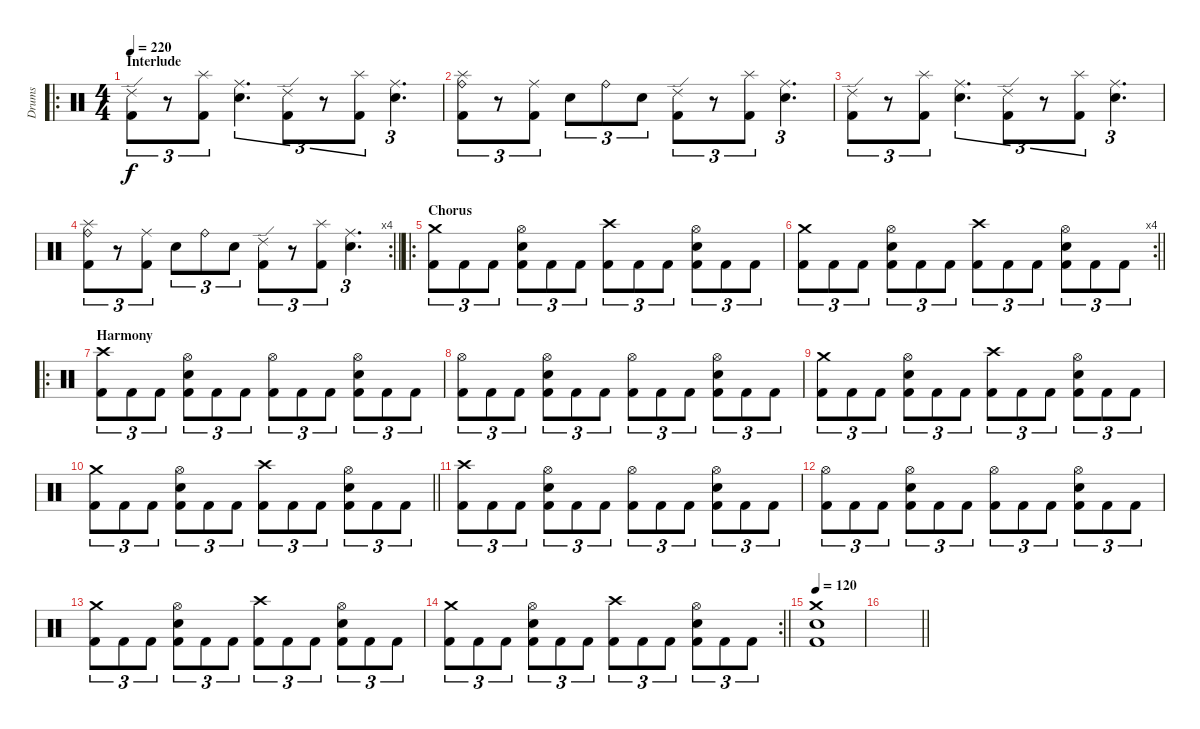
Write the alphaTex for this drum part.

\track ("Drums" "Drums") {instrument percussion}
\staff {score}
\articulation defaults
\ro
\ts (4 4)
\section ("" "Interlude")
\tempo 220
\clef neutral
\ks c
("Ride (edge) 2" "Kick (hit) 2").8{tu (3 2) dy f} r.8{tu (3 2)} ("Splash (hit)" "Kick (hit) 2").8{tu (3 2)} ("Ride (middle)" "Snare (hit) 2").4{d tu (3 2)} ("Ride (edge) 2" "Kick (hit) 2").8{tu (3 2)} r.8{tu (3 2)} ("Splash (hit)" "Kick (hit) 2").8{tu (3 2)} ("Ride (middle)" "Snare (hit) 2").4{d tu (3 2)} |
("Splash (hit)" "Ride (bell)" "Kick (hit) 2").8{tu (3 2)} r.8{tu (3 2)} ("Ride (middle)" "Kick (hit) 2").8{tu (3 2)} "Snare (hit) 2".8{tu (3 2)} "Ride (bell)".8{tu (3 2)} "Snare (hit) 2".8{tu (3 2)} ("Ride (edge) 2" "Kick (hit) 2").8{tu (3 2)} r.8{tu (3 2)} ("Splash (hit)" "Kick (hit) 2").8{tu (3 2)} ("Ride (middle)" "Snare (hit) 2").4{d tu (3 2)} |
("Ride (edge) 2" "Kick (hit) 2").8{tu (3 2)} r.8{tu (3 2)} ("Splash (hit)" "Kick (hit) 2").8{tu (3 2)} ("Ride (middle)" "Snare (hit) 2").4{d tu (3 2)} ("Ride (edge) 2" "Kick (hit) 2").8{tu (3 2)} r.8{tu (3 2)} ("Splash (hit)" "Kick (hit) 2").8{tu (3 2)} ("Ride (middle)" "Snare (hit) 2").4{d tu (3 2)} |
\rc 4
\barLineRight lightlight
("Splash (hit)" "Ride (bell)" "Kick (hit) 2").8{tu (3 2)} r.8{tu (3 2)} ("Ride (middle)" "Kick (hit) 2").8{tu (3 2)} "Snare (hit) 2".8{tu (3 2)} "Ride (bell)".8{tu (3 2)} "Snare (hit) 2".8{tu (3 2)} ("Ride (edge) 2" "Kick (hit) 2").8{tu (3 2)} r.8{tu (3 2)} ("Splash (hit)" "Kick (hit) 2").8{tu (3 2)} ("Ride (middle)" "Snare (hit) 2").4{d tu (3 2)} |
\ro
\section ("" "Chorus")
("Crash medium (hit)" "Kick (hit) 2").8{tu (3 2)} "Kick (hit) 2".8{tu (3 2)} "Kick (hit) 2".8{tu (3 2)} ("Hi-Hat (open)" "Snare (hit) 2" "Kick (hit) 2").8{tu (3 2)} "Kick (hit) 2".8{tu (3 2)} "Kick (hit) 2".8{tu (3 2)} ("Crash high (hit)" "Kick (hit) 2").8{tu (3 2)} "Kick (hit) 2".8{tu (3 2)} "Kick (hit) 2".8{tu (3 2)} ("Hi-Hat (open)" "Snare (hit) 2" "Kick (hit) 2").8{tu (3 2)} "Kick (hit) 2".8{tu (3 2)} "Kick (hit) 2".8{tu (3 2)} |
\rc 4
\barLineRight lightlight
("Crash medium (hit)" "Kick (hit) 2").8{tu (3 2)} "Kick (hit) 2".8{tu (3 2)} "Kick (hit) 2".8{tu (3 2)} ("Hi-Hat (open)" "Snare (hit) 2" "Kick (hit) 2").8{tu (3 2)} "Kick (hit) 2".8{tu (3 2)} "Kick (hit) 2".8{tu (3 2)} ("Crash high (hit)" "Kick (hit) 2").8{tu (3 2)} "Kick (hit) 2".8{tu (3 2)} "Kick (hit) 2".8{tu (3 2)} ("Hi-Hat (open)" "Snare (hit) 2" "Kick (hit) 2").8{tu (3 2)} "Kick (hit) 2".8{tu (3 2)} "Kick (hit) 2".8{tu (3 2)} |
\ro
\section ("" "Harmony")
("Crash high (hit)" "Kick (hit) 2").8{tu (3 2)} "Kick (hit) 2".8{tu (3 2)} "Kick (hit) 2".8{tu (3 2)} ("Hi-Hat (open)" "Snare (hit) 2" "Kick (hit) 2").8{tu (3 2)} "Kick (hit) 2".8{tu (3 2)} "Kick (hit) 2".8{tu (3 2)} ("Hi-Hat (open)" "Kick (hit) 2").8{tu (3 2)} "Kick (hit) 2".8{tu (3 2)} "Kick (hit) 2".8{tu (3 2)} ("Hi-Hat (open)" "Snare (hit) 2" "Kick (hit) 2").8{tu (3 2)} "Kick (hit) 2".8{tu (3 2)} "Kick (hit) 2".8{tu (3 2)} |
("Hi-Hat (open)" "Kick (hit) 2").8{tu (3 2)} "Kick (hit) 2".8{tu (3 2)} "Kick (hit) 2".8{tu (3 2)} ("Hi-Hat (open)" "Snare (hit) 2" "Kick (hit) 2").8{tu (3 2)} "Kick (hit) 2".8{tu (3 2)} "Kick (hit) 2".8{tu (3 2)} ("Hi-Hat (open)" "Kick (hit) 2").8{tu (3 2)} "Kick (hit) 2".8{tu (3 2)} "Kick (hit) 2".8{tu (3 2)} ("Hi-Hat (open)" "Snare (hit) 2" "Kick (hit) 2").8{tu (3 2)} "Kick (hit) 2".8{tu (3 2)} "Kick (hit) 2".8{tu (3 2)} |
("Crash medium (hit)" "Kick (hit) 2").8{tu (3 2)} "Kick (hit) 2".8{tu (3 2)} "Kick (hit) 2".8{tu (3 2)} ("Hi-Hat (open)" "Snare (hit) 2" "Kick (hit) 2").8{tu (3 2)} "Kick (hit) 2".8{tu (3 2)} "Kick (hit) 2".8{tu (3 2)} ("Crash high (hit)" "Kick (hit) 2").8{tu (3 2)} "Kick (hit) 2".8{tu (3 2)} "Kick (hit) 2".8{tu (3 2)} ("Hi-Hat (open)" "Snare (hit) 2" "Kick (hit) 2").8{tu (3 2)} "Kick (hit) 2".8{tu (3 2)} "Kick (hit) 2".8{tu (3 2)} |
\barLineRight lightlight
("Crash medium (hit)" "Kick (hit) 2").8{tu (3 2)} "Kick (hit) 2".8{tu (3 2)} "Kick (hit) 2".8{tu (3 2)} ("Hi-Hat (open)" "Snare (hit) 2" "Kick (hit) 2").8{tu (3 2)} "Kick (hit) 2".8{tu (3 2)} "Kick (hit) 2".8{tu (3 2)} ("Crash high (hit)" "Kick (hit) 2").8{tu (3 2)} "Kick (hit) 2".8{tu (3 2)} "Kick (hit) 2".8{tu (3 2)} ("Hi-Hat (open)" "Snare (hit) 2" "Kick (hit) 2").8{tu (3 2)} "Kick (hit) 2".8{tu (3 2)} "Kick (hit) 2".8{tu (3 2)} |
("Crash high (hit)" "Kick (hit) 2").8{tu (3 2)} "Kick (hit) 2".8{tu (3 2)} "Kick (hit) 2".8{tu (3 2)} ("Hi-Hat (open)" "Snare (hit) 2" "Kick (hit) 2").8{tu (3 2)} "Kick (hit) 2".8{tu (3 2)} "Kick (hit) 2".8{tu (3 2)} ("Hi-Hat (open)" "Kick (hit) 2").8{tu (3 2)} "Kick (hit) 2".8{tu (3 2)} "Kick (hit) 2".8{tu (3 2)} ("Hi-Hat (open)" "Snare (hit) 2" "Kick (hit) 2").8{tu (3 2)} "Kick (hit) 2".8{tu (3 2)} "Kick (hit) 2".8{tu (3 2)} |
("Hi-Hat (open)" "Kick (hit) 2").8{tu (3 2)} "Kick (hit) 2".8{tu (3 2)} "Kick (hit) 2".8{tu (3 2)} ("Hi-Hat (open)" "Snare (hit) 2" "Kick (hit) 2").8{tu (3 2)} "Kick (hit) 2".8{tu (3 2)} "Kick (hit) 2".8{tu (3 2)} ("Hi-Hat (open)" "Kick (hit) 2").8{tu (3 2)} "Kick (hit) 2".8{tu (3 2)} "Kick (hit) 2".8{tu (3 2)} ("Hi-Hat (open)" "Snare (hit) 2" "Kick (hit) 2").8{tu (3 2)} "Kick (hit) 2".8{tu (3 2)} "Kick (hit) 2".8{tu (3 2)} |
("Crash medium (hit)" "Kick (hit) 2").8{tu (3 2)} "Kick (hit) 2".8{tu (3 2)} "Kick (hit) 2".8{tu (3 2)} ("Hi-Hat (open)" "Snare (hit) 2" "Kick (hit) 2").8{tu (3 2)} "Kick (hit) 2".8{tu (3 2)} "Kick (hit) 2".8{tu (3 2)} ("Crash high (hit)" "Kick (hit) 2").8{tu (3 2)} "Kick (hit) 2".8{tu (3 2)} "Kick (hit) 2".8{tu (3 2)} ("Hi-Hat (open)" "Snare (hit) 2" "Kick (hit) 2").8{tu (3 2)} "Kick (hit) 2".8{tu (3 2)} "Kick (hit) 2".8{tu (3 2)} |
\rc 2
\barLineRight lightlight
("Crash medium (hit)" "Kick (hit) 2").8{tu (3 2)} "Kick (hit) 2".8{tu (3 2)} "Kick (hit) 2".8{tu (3 2)} ("Hi-Hat (open)" "Snare (hit) 2" "Kick (hit) 2").8{tu (3 2)} "Kick (hit) 2".8{tu (3 2)} "Kick (hit) 2".8{tu (3 2)} ("Crash high (hit)" "Kick (hit) 2").8{tu (3 2)} "Kick (hit) 2".8{tu (3 2)} "Kick (hit) 2".8{tu (3 2)} ("Hi-Hat (open)" "Snare (hit) 2" "Kick (hit) 2").8{tu (3 2)} "Kick (hit) 2".8{tu (3 2)} "Kick (hit) 2".8{tu (3 2)} |
\tempo 120
("Crash medium (hit)" "Snare (hit) 2" "Kick (hit) 2").1 |
\barLineRight lightlight
